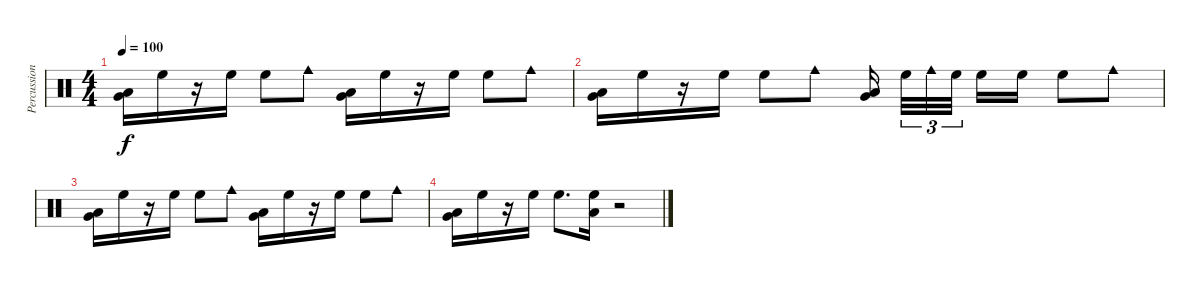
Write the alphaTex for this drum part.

\track ("Percussion" "Percussion") {instrument percussion}
\staff {score}
\articulation defaults
\ts (4 4)
\tempo 100
\clef neutral
\ks c
("Low Floor Tom (hit)" "Very Low Tom (hit)").16{dy f} "High Floor Tom (hit)".16 r.16 "High Floor Tom (hit)".16 "High Floor Tom (hit)".8 "Cowbell medium (hit)".8 ("Low Floor Tom (hit)" "Very Low Tom (hit)").16 "High Floor Tom (hit)".16 r.16 "High Floor Tom (hit)".16 "High Floor Tom (hit)".8 "Cowbell medium (hit)".8 |
("Low Floor Tom (hit)" "Very Low Tom (hit)").16 "High Floor Tom (hit)".16 r.16 "High Floor Tom (hit)".16 "High Floor Tom (hit)".8 "Cowbell medium (hit)".8 ("Low Floor Tom (hit)" "Very Low Tom (hit)").16{beam splitsecondary} "High Floor Tom (hit)".32{tu (3 2)} "Cowbell medium (hit)".32{tu (3 2)} "High Floor Tom (hit)".32{tu (3 2) beam splitsecondary} "High Floor Tom (hit)".16 "High Floor Tom (hit)".16 "High Floor Tom (hit)".8 "Cowbell medium (hit)".8 |
("Low Floor Tom (hit)" "Very Low Tom (hit)").16 "High Floor Tom (hit)".16 r.16 "High Floor Tom (hit)".16 "High Floor Tom (hit)".8 "Cowbell medium (hit)".8 ("Low Floor Tom (hit)" "Very Low Tom (hit)").16 "High Floor Tom (hit)".16 r.16 "High Floor Tom (hit)".16 "High Floor Tom (hit)".8 "Cowbell medium (hit)".8 |
("Low Floor Tom (hit)" "Very Low Tom (hit)").16 "High Floor Tom (hit)".16 r.16 "High Floor Tom (hit)".16 "High Floor Tom (hit)".8{d} ("High Floor Tom (hit)" "Low Floor Tom (hit)").16 r.2
